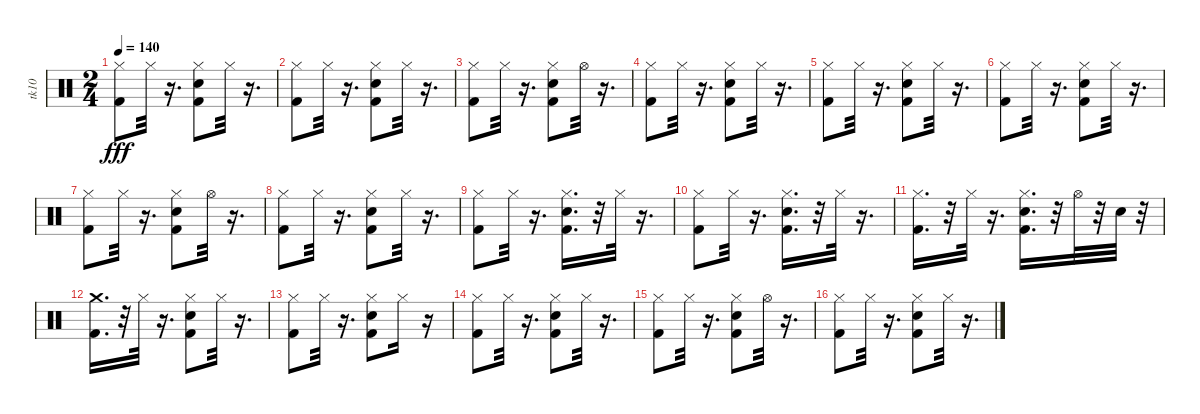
\track ("tk10" "tk10") {instrument percussion}
\staff {score}
\articulation defaults
\ts (2 4)
\tempo 140
\clef neutral
\ks c
("Kick (hit) 2" "Hi-Hat (closed)").8{dy fff} "Hi-Hat (closed)".32 r.16{d} ("Kick (hit) 2" "Hi-Hat (closed)" "Snare (hit) 2").8 "Hi-Hat (closed)".32 r.16{d} |
("Kick (hit) 2" "Hi-Hat (closed)").8 "Hi-Hat (closed)".32 r.16{d} ("Hi-Hat (closed)" "Snare (hit) 2" "Kick (hit) 2").8 "Hi-Hat (closed)".32 r.16{d} |
("Kick (hit) 2" "Hi-Hat (closed)").8 "Hi-Hat (closed)".32 r.16{d} ("Snare (hit) 2" "Kick (hit) 2" "Hi-Hat (closed)").8 "Hi-Hat (open)".32 r.16{d} |
("Kick (hit) 2" "Hi-Hat (closed)").8 "Hi-Hat (closed)".32 r.16{d} ("Snare (hit) 2" "Kick (hit) 2" "Hi-Hat (closed)").8 "Hi-Hat (closed)".32 r.16{d} |
("Kick (hit) 2" "Hi-Hat (closed)").8 "Hi-Hat (closed)".32 r.16{d} ("Snare (hit) 2" "Kick (hit) 2" "Hi-Hat (closed)").8 "Hi-Hat (closed)".32 r.16{d} |
("Kick (hit) 2" "Hi-Hat (closed)").8 "Hi-Hat (closed)".32 r.16{d} ("Kick (hit) 2" "Hi-Hat (closed)" "Snare (hit) 2").8 "Hi-Hat (closed)".32 r.16{d} |
("Kick (hit) 2" "Hi-Hat (closed)").8 "Hi-Hat (closed)".32 r.16{d} ("Kick (hit) 2" "Hi-Hat (closed)" "Snare (hit) 2").8 "Hi-Hat (open)".32 r.16{d} |
("Kick (hit) 2" "Hi-Hat (closed)").8 "Hi-Hat (closed)".32 r.16{d} ("Snare (hit) 2" "Kick (hit) 2" "Hi-Hat (closed)").8 "Hi-Hat (closed)".32 r.16{d} |
("Kick (hit) 2" "Hi-Hat (closed)").8 "Hi-Hat (closed)".32 r.16{d} ("Snare (hit) 2" "Kick (hit) 2" "Hi-Hat (closed)").16{d} r.32 "Hi-Hat (closed)".32 r.16{d} |
("Kick (hit) 2" "Hi-Hat (closed)").8 "Hi-Hat (closed)".32 r.16{d} ("Snare (hit) 2" "Kick (hit) 2" "Hi-Hat (closed)").16{d} r.32 "Hi-Hat (closed)".32 r.16{d} |
("Kick (hit) 2" "Hi-Hat (closed)").16{d} r.32 "Hi-Hat (closed)".32 r.16{d} ("Snare (hit) 2" "Kick (hit) 2" "Hi-Hat (closed)").16{d} r.32 "Hi-Hat (open)".32 r.32 "Snare (hit) 2".32 r.32 |
("Crash medium (hit)" "Kick (hit) 2").16{d} r.32 "Hi-Hat (closed)".32 r.16{d} ("Snare (hit) 2" "Hi-Hat (closed)" "Kick (hit) 2").8 "Hi-Hat (closed)".32 r.16{d} |
("Kick (hit) 2" "Hi-Hat (closed)").8 "Hi-Hat (closed)".32 r.16{d} ("Snare (hit) 2" "Kick (hit) 2" "Hi-Hat (closed)").8 "Hi-Hat (closed)".16 r.16 |
("Kick (hit) 2" "Hi-Hat (closed)").8 "Hi-Hat (closed)".32 r.16{d} ("Snare (hit) 2" "Kick (hit) 2" "Hi-Hat (closed)").8 "Hi-Hat (closed)".32 r.16{d} |
("Kick (hit) 2" "Hi-Hat (closed)").8 "Hi-Hat (closed)".32 r.16{d} ("Snare (hit) 2" "Hi-Hat (closed)" "Kick (hit) 2").8 "Hi-Hat (open)".32 r.16{d} |
("Kick (hit) 2" "Hi-Hat (closed)").8 "Hi-Hat (closed)".32 r.16{d} ("Hi-Hat (closed)" "Snare (hit) 2" "Kick (hit) 2").8 "Hi-Hat (closed)".32 r.16{d}
